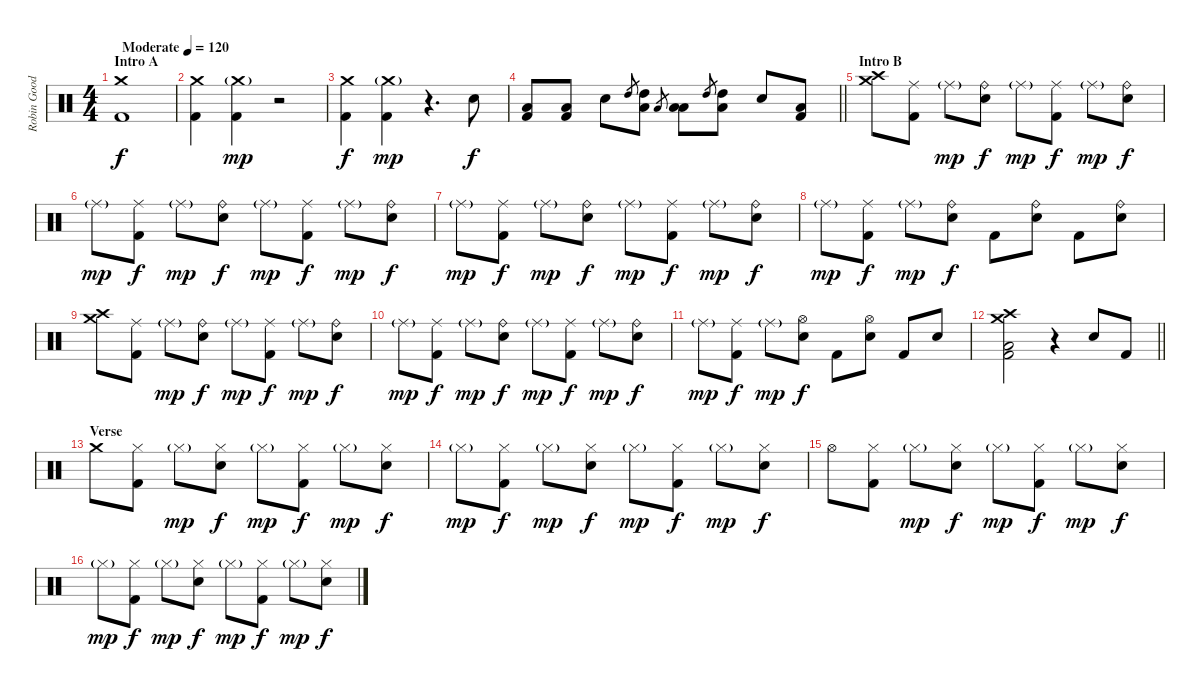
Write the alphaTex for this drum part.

\track ("Robin Goodridge: Drums" "Robin Good") {instrument percussion}
\staff {score}
\articulation defaults
\ts (4 4)
\section ("" "Intro A")
\tempo (120 "Moderate")
\clef neutral
\ks c
("Crash medium (hit)" "Kick (hit) 2").1{dy f} |
("Crash medium (hit)" "Kick (hit) 2").4 ("Crash medium (hit)"{g} "Kick (hit) 2").4{dy mp} r.2 |
("Crash medium (hit)" "Kick (hit) 2").4{dy f} ("Crash medium (hit)"{g} "Kick (hit) 2").4{dy mp} r.4{d} "Electric Snare (hit)".8{dy f} |
\barLineRight lightlight
("Kick (hit) 2" "Low Floor Tom (hit)").8 ("Kick (hit) 2" "Low Floor Tom (hit)").8 "Electric Snare (hit)".8 "High Tom (hit)".8{gr} ("High Tom (hit)" "Low Floor Tom (hit)").8 "Low Tom (hit)".8{gr} ("Low Tom (hit)" "Low Floor Tom (hit)").8 "High Tom (hit)".8{gr} ("High Tom (hit)" "Low Floor Tom (hit)").8 "Electric Snare (hit)".8 ("Kick (hit) 2" "Low Floor Tom (hit)").8 |
\section ("" "Intro B")
("Crash high (hit)" "Crash medium (hit)").8 ("Ride (middle)" "Kick (hit) 2").8 "Ride (middle)"{g}.8{dy mp} ("Ride (bell)" "Electric Snare (hit)").8{dy f} "Ride (middle)"{g}.8{dy mp} ("Ride (middle)" "Kick (hit) 2").8{dy f} "Ride (middle)"{g}.8{dy mp} ("Ride (bell)" "Electric Snare (hit)").8{dy f} |
"Ride (middle)"{g}.8{dy mp} ("Ride (middle)" "Kick (hit) 2").8{dy f} "Ride (middle)"{g}.8{dy mp} ("Ride (bell)" "Electric Snare (hit)").8{dy f} "Ride (middle)"{g}.8{dy mp} ("Ride (middle)" "Kick (hit) 2").8{dy f} "Ride (middle)"{g}.8{dy mp} ("Ride (bell)" "Electric Snare (hit)").8{dy f} |
"Ride (middle)"{g}.8{dy mp} ("Ride (middle)" "Kick (hit) 2").8{dy f} "Ride (middle)"{g}.8{dy mp} ("Ride (bell)" "Electric Snare (hit)").8{dy f} "Ride (middle)"{g}.8{dy mp} ("Ride (middle)" "Kick (hit) 2").8{dy f} "Ride (middle)"{g}.8{dy mp} ("Ride (bell)" "Electric Snare (hit)").8{dy f} |
"Ride (middle)"{g}.8{dy mp} ("Ride (middle)" "Kick (hit) 2").8{dy f} "Ride (middle)"{g}.8{dy mp} ("Ride (bell)" "Electric Snare (hit)").8{dy f} "Kick (hit) 2".8 ("Ride (bell)" "Electric Snare (hit)").8 "Kick (hit) 2".8 ("Ride (bell)" "Electric Snare (hit)").8 |
("Crash high (hit)" "Crash medium (hit)").8 ("Ride (middle)" "Kick (hit) 2").8 "Ride (middle)"{g}.8{dy mp} ("Ride (bell)" "Electric Snare (hit)").8{dy f} "Ride (middle)"{g}.8{dy mp} ("Ride (middle)" "Kick (hit) 2").8{dy f} "Ride (middle)"{g}.8{dy mp} ("Ride (bell)" "Electric Snare (hit)").8{dy f} |
"Ride (middle)"{g}.8{dy mp} ("Ride (middle)" "Kick (hit) 2").8{dy f} "Ride (middle)"{g}.8{dy mp} ("Ride (bell)" "Electric Snare (hit)").8{dy f} "Ride (middle)"{g}.8{dy mp} ("Ride (middle)" "Kick (hit) 2").8{dy f} "Ride (middle)"{g}.8{dy mp} ("Ride (bell)" "Electric Snare (hit)").8{dy f} |
"Ride (middle)"{g}.8{dy mp} ("Ride (middle)" "Kick (hit) 2").8{dy f} "Ride (middle)"{g}.8{dy mp} ("Hi-Hat (open)" "Electric Snare (hit)").8{dy f} "Kick (hit) 2".8 ("Hi-Hat (open)" "Electric Snare (hit)").8 "Kick (hit) 2".8 "Electric Snare (hit)".8 |
\barLineRight lightlight
("Crash high (hit)" "Crash medium (hit)" "Kick (hit) 2" "Low Floor Tom (hit)").2 r.4 "Electric Snare (hit)".8 "Kick (hit) 2".8 |
\section ("" "Verse")
"Crash medium (hit)".8 ("Hi-Hat (closed)" "Kick (hit) 2").8 "Hi-Hat (closed)"{g}.8{dy mp} ("Hi-Hat (closed)" "Electric Snare (hit)").8{dy f} "Hi-Hat (closed)"{g}.8{dy mp} ("Hi-Hat (closed)" "Kick (hit) 2").8{dy f} "Hi-Hat (closed)"{g}.8{dy mp} ("Hi-Hat (closed)" "Electric Snare (hit)").8{dy f} |
"Hi-Hat (closed)"{g}.8{dy mp} ("Hi-Hat (closed)" "Kick (hit) 2").8{dy f} "Hi-Hat (closed)"{g}.8{dy mp} ("Hi-Hat (closed)" "Electric Snare (hit)").8{dy f} "Hi-Hat (closed)"{g}.8{dy mp} ("Hi-Hat (closed)" "Kick (hit) 2").8{dy f} "Hi-Hat (closed)"{g}.8{dy mp} ("Hi-Hat (closed)" "Electric Snare (hit)").8{dy f} |
"Hi-Hat (open)".8 ("Hi-Hat (closed)" "Kick (hit) 2").8 "Hi-Hat (closed)"{g}.8{dy mp} ("Hi-Hat (closed)" "Electric Snare (hit)").8{dy f} "Hi-Hat (closed)"{g}.8{dy mp} ("Hi-Hat (closed)" "Kick (hit) 2").8{dy f} "Hi-Hat (closed)"{g}.8{dy mp} ("Hi-Hat (closed)" "Electric Snare (hit)").8{dy f} |
"Hi-Hat (closed)"{g}.8{dy mp} ("Hi-Hat (closed)" "Kick (hit) 2").8{dy f} "Hi-Hat (closed)"{g}.8{dy mp} ("Hi-Hat (closed)" "Electric Snare (hit)").8{dy f} "Hi-Hat (closed)"{g}.8{dy mp} ("Hi-Hat (closed)" "Kick (hit) 2").8{dy f} "Hi-Hat (closed)"{g}.8{dy mp} ("Hi-Hat (closed)" "Electric Snare (hit)").8{dy f}
